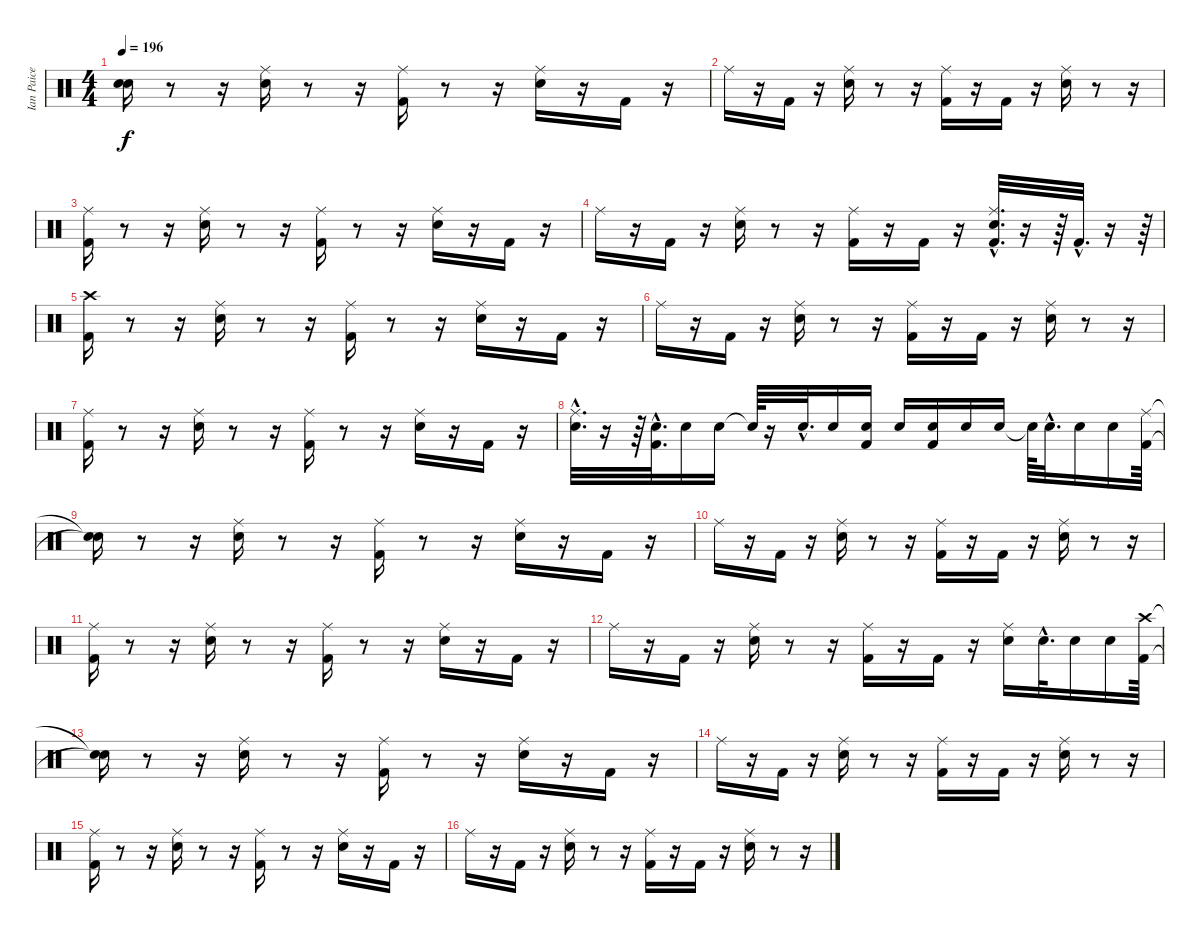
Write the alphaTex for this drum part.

\track ("Ian Paice" "Ian Paice") {instrument percussion}
\staff {score}
\articulation defaults
\ts (4 4)
\tempo 196
\clef neutral
\ks c
("Snare (hit)"{t} "Snare (hit)"{t}).16{dy f} r.8 r.16 ("Snare (hit) 2" "Ride (middle)").16 r.8 r.16 ("Kick (hit) 2" "Ride (middle)").16 r.8 r.16 ("Snare (hit) 2" "Ride (middle)").16 r.16 "Kick (hit) 2".16 r.16 |
"Ride (middle)".16 r.16 "Kick (hit) 2".16 r.16 ("Snare (hit) 2" "Ride (middle)").16 r.8 r.16 ("Kick (hit) 2" "Ride (middle)").16 r.16 "Kick (hit) 2".16 r.16 ("Snare (hit) 2" "Ride (middle)").16 r.8 r.16 |
("Kick (hit) 2" "Ride (middle)").16 r.8 r.16 ("Snare (hit) 2" "Ride (middle)").16 r.8 r.16 ("Kick (hit) 2" "Ride (middle)").16 r.8 r.16 ("Snare (hit) 2" "Ride (middle)").16 r.16 "Kick (hit) 2".16 r.16 |
"Ride (middle)".16 r.16 "Kick (hit) 2".16 r.16 ("Snare (hit) 2" "Ride (middle)").16 r.8 r.16 ("Kick (hit) 2" "Ride (middle)").16 r.16 "Kick (hit) 2".16 r.16 ("Snare (hit) 2"{hac} "Ride (middle)"{hac} "Kick (hit) 2"{hac}).32{d} r.16 r.64 "Kick (hit) 2"{hac}.32{d} r.16 r.64 |
("Kick (hit) 2" "Crash high (hit)").16 r.8 r.16 ("Snare (hit) 2" "Ride (middle)").16 r.8 r.16 ("Kick (hit) 2" "Ride (middle)").16 r.8 r.16 ("Snare (hit) 2" "Ride (middle)").16 r.16 "Kick (hit) 2".16 r.16 |
"Ride (middle)".16 r.16 "Kick (hit) 2".16 r.16 ("Snare (hit) 2" "Ride (middle)").16 r.8 r.16 ("Kick (hit) 2" "Ride (middle)").16 r.16 "Kick (hit) 2".16 r.16 ("Snare (hit) 2" "Ride (middle)").16 r.8 r.16 |
("Kick (hit) 2" "Ride (middle)").16 r.8 r.16 ("Snare (hit) 2" "Ride (middle)").16 r.8 r.16 ("Kick (hit) 2" "Ride (middle)").16 r.8 r.16 ("Snare (hit) 2" "Ride (middle)").16 r.16 "Kick (hit) 2".16 r.16 |
("Ride (middle)"{hac} "Snare (hit) 2"{hac}).32{d} r.16 r.64 ("Kick (hit) 2"{hac} "Snare (hit) 2"{hac}).32{d} "Snare (hit) 2".16 "Snare (hit) 2".16 "Snare (hit)"{t}.64 r.16 "Snare (hit) 2"{hac}.32{d} "Snare (hit) 2".16 ("Kick (hit) 2" "Snare (hit) 2").16 "Snare (hit) 2".16 ("Kick (hit) 2" "Snare (hit) 2").16 "Snare (hit) 2".16 "Snare (hit) 2".16 "Snare (hit)"{t}.64 "Snare (hit) 2"{hac}.32{d} "Snare (hit) 2".16 "Snare (hit) 2".16 ("Kick (hit) 2" "Ride (middle)").64 |
("Snare (hit)"{t} "Snare (hit)"{t}).16 r.8 r.16 ("Snare (hit) 2" "Ride (middle)").16 r.8 r.16 ("Kick (hit) 2" "Ride (middle)").16 r.8 r.16 ("Snare (hit) 2" "Ride (middle)").16 r.16 "Kick (hit) 2".16 r.16 |
"Ride (middle)".16 r.16 "Kick (hit) 2".16 r.16 ("Snare (hit) 2" "Ride (middle)").16 r.8 r.16 ("Kick (hit) 2" "Ride (middle)").16 r.16 "Kick (hit) 2".16 r.16 ("Snare (hit) 2" "Ride (middle)").16 r.8 r.16 |
("Kick (hit) 2" "Ride (middle)").16 r.8 r.16 ("Snare (hit) 2" "Ride (middle)").16 r.8 r.16 ("Kick (hit) 2" "Ride (middle)").16 r.8 r.16 ("Snare (hit) 2" "Ride (middle)").16 r.16 "Kick (hit) 2".16 r.16 |
"Ride (middle)".16 r.16 "Kick (hit) 2".16 r.16 ("Snare (hit) 2" "Ride (middle)").16 r.8 r.16 ("Kick (hit) 2" "Ride (middle)").16 r.16 "Kick (hit) 2".16 r.16 ("Snare (hit) 2" "Ride (middle)").16 "Snare (hit) 2"{hac}.32{d} "Snare (hit) 2".16 "Snare (hit) 2".16 ("Kick (hit) 2" "Crash high (hit)").64 |
("Snare (hit)"{t} "Snare (hit)"{t}).16 r.8 r.16 ("Snare (hit) 2" "Ride (middle)").16 r.8 r.16 ("Kick (hit) 2" "Ride (middle)").16 r.8 r.16 ("Snare (hit) 2" "Ride (middle)").16 r.16 "Kick (hit) 2".16 r.16 |
"Ride (middle)".16 r.16 "Kick (hit) 2".16 r.16 ("Snare (hit) 2" "Ride (middle)").16 r.8 r.16 ("Kick (hit) 2" "Ride (middle)").16 r.16 "Kick (hit) 2".16 r.16 ("Snare (hit) 2" "Ride (middle)").16 r.8 r.16 |
("Kick (hit) 2" "Ride (middle)").16 r.8 r.16 ("Snare (hit) 2" "Ride (middle)").16 r.8 r.16 ("Kick (hit) 2" "Ride (middle)").16 r.8 r.16 ("Snare (hit) 2" "Ride (middle)").16 r.16 "Kick (hit) 2".16 r.16 |
"Ride (middle)".16 r.16 "Kick (hit) 2".16 r.16 ("Snare (hit) 2" "Ride (middle)").16 r.8 r.16 ("Kick (hit) 2" "Ride (middle)").16 r.16 "Kick (hit) 2".16 r.16 ("Snare (hit) 2" "Ride (middle)").16 r.8 r.16
